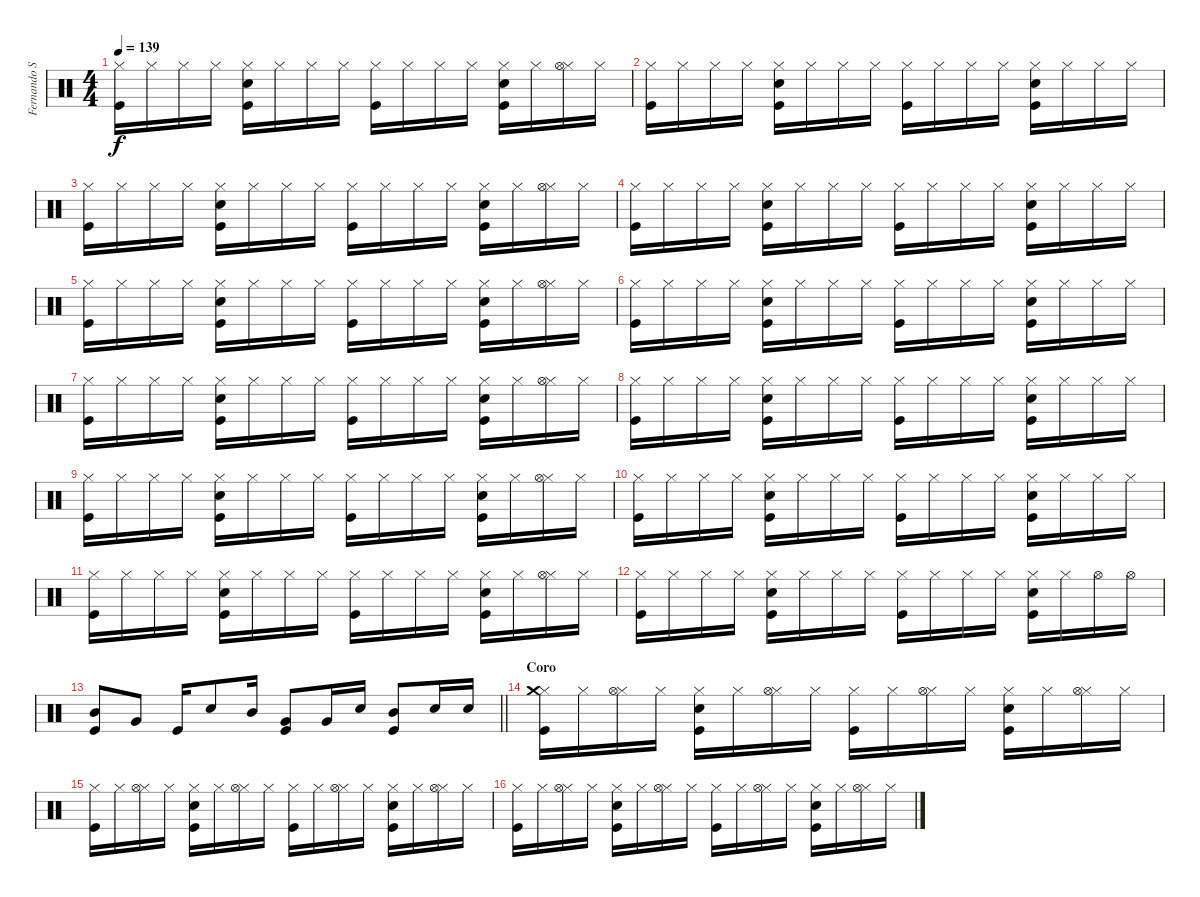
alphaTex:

\track ("Fernando Samalea (Bateria)" "Fernando S") {instrument percussion}
\staff {score}
\articulation defaults
\ts (4 4)
\tempo 139
\clef neutral
\ks c
("Kick (hit)" "Hi-Hat (closed)").16{dy f} "Hi-Hat (closed)".16 "Hi-Hat (closed)".16 "Hi-Hat (closed)".16 ("Kick (hit)" "Snare (hit) 2" "Hi-Hat (closed)").16 "Hi-Hat (closed)".16 "Hi-Hat (closed)".16 "Hi-Hat (closed)".16 ("Kick (hit)" "Hi-Hat (closed)").16 "Hi-Hat (closed)".16 "Hi-Hat (closed)".16 "Hi-Hat (closed)".16 ("Kick (hit)" "Snare (hit) 2" "Hi-Hat (closed)").16 "Hi-Hat (closed)".16 ("Hi-Hat (closed)" "Hi-Hat (open)").16 "Hi-Hat (closed)".16 |
("Kick (hit)" "Hi-Hat (closed)").16 "Hi-Hat (closed)".16 "Hi-Hat (closed)".16 "Hi-Hat (closed)".16 ("Kick (hit)" "Snare (hit) 2" "Hi-Hat (closed)").16 "Hi-Hat (closed)".16 "Hi-Hat (closed)".16 "Hi-Hat (closed)".16 ("Kick (hit)" "Hi-Hat (closed)").16 "Hi-Hat (closed)".16 "Hi-Hat (closed)".16 "Hi-Hat (closed)".16 ("Kick (hit)" "Snare (hit) 2" "Hi-Hat (closed)").16 "Hi-Hat (closed)".16 "Hi-Hat (closed)".16 "Hi-Hat (closed)".16 |
("Kick (hit)" "Hi-Hat (closed)").16 "Hi-Hat (closed)".16 "Hi-Hat (closed)".16 "Hi-Hat (closed)".16 ("Kick (hit)" "Snare (hit) 2" "Hi-Hat (closed)").16 "Hi-Hat (closed)".16 "Hi-Hat (closed)".16 "Hi-Hat (closed)".16 ("Kick (hit)" "Hi-Hat (closed)").16 "Hi-Hat (closed)".16 "Hi-Hat (closed)".16 "Hi-Hat (closed)".16 ("Kick (hit)" "Snare (hit) 2" "Hi-Hat (closed)").16 "Hi-Hat (closed)".16 ("Hi-Hat (closed)" "Hi-Hat (open)").16 "Hi-Hat (closed)".16 |
("Kick (hit)" "Hi-Hat (closed)").16 "Hi-Hat (closed)".16 "Hi-Hat (closed)".16 "Hi-Hat (closed)".16 ("Kick (hit)" "Snare (hit) 2" "Hi-Hat (closed)").16 "Hi-Hat (closed)".16 "Hi-Hat (closed)".16 "Hi-Hat (closed)".16 ("Kick (hit)" "Hi-Hat (closed)").16 "Hi-Hat (closed)".16 "Hi-Hat (closed)".16 "Hi-Hat (closed)".16 ("Kick (hit)" "Snare (hit) 2" "Hi-Hat (closed)").16 "Hi-Hat (closed)".16 "Hi-Hat (closed)".16 "Hi-Hat (closed)".16 |
("Kick (hit)" "Hi-Hat (closed)").16 "Hi-Hat (closed)".16 "Hi-Hat (closed)".16 "Hi-Hat (closed)".16 ("Kick (hit)" "Snare (hit) 2" "Hi-Hat (closed)").16 "Hi-Hat (closed)".16 "Hi-Hat (closed)".16 "Hi-Hat (closed)".16 ("Kick (hit)" "Hi-Hat (closed)").16 "Hi-Hat (closed)".16 "Hi-Hat (closed)".16 "Hi-Hat (closed)".16 ("Kick (hit)" "Snare (hit) 2" "Hi-Hat (closed)").16 "Hi-Hat (closed)".16 ("Hi-Hat (closed)" "Hi-Hat (open)").16 "Hi-Hat (closed)".16 |
("Kick (hit)" "Hi-Hat (closed)").16 "Hi-Hat (closed)".16 "Hi-Hat (closed)".16 "Hi-Hat (closed)".16 ("Kick (hit)" "Snare (hit) 2" "Hi-Hat (closed)").16 "Hi-Hat (closed)".16 "Hi-Hat (closed)".16 "Hi-Hat (closed)".16 ("Kick (hit)" "Hi-Hat (closed)").16 "Hi-Hat (closed)".16 "Hi-Hat (closed)".16 "Hi-Hat (closed)".16 ("Kick (hit)" "Snare (hit) 2" "Hi-Hat (closed)").16 "Hi-Hat (closed)".16 "Hi-Hat (closed)".16 "Hi-Hat (closed)".16 |
("Kick (hit)" "Hi-Hat (closed)").16 "Hi-Hat (closed)".16 "Hi-Hat (closed)".16 "Hi-Hat (closed)".16 ("Kick (hit)" "Snare (hit) 2" "Hi-Hat (closed)").16 "Hi-Hat (closed)".16 "Hi-Hat (closed)".16 "Hi-Hat (closed)".16 ("Kick (hit)" "Hi-Hat (closed)").16 "Hi-Hat (closed)".16 "Hi-Hat (closed)".16 "Hi-Hat (closed)".16 ("Kick (hit)" "Snare (hit) 2" "Hi-Hat (closed)").16 "Hi-Hat (closed)".16 ("Hi-Hat (closed)" "Hi-Hat (open)").16 "Hi-Hat (closed)".16 |
("Kick (hit)" "Hi-Hat (closed)").16 "Hi-Hat (closed)".16 "Hi-Hat (closed)".16 "Hi-Hat (closed)".16 ("Kick (hit)" "Snare (hit) 2" "Hi-Hat (closed)").16 "Hi-Hat (closed)".16 "Hi-Hat (closed)".16 "Hi-Hat (closed)".16 ("Kick (hit)" "Hi-Hat (closed)").16 "Hi-Hat (closed)".16 "Hi-Hat (closed)".16 "Hi-Hat (closed)".16 ("Kick (hit)" "Snare (hit) 2" "Hi-Hat (closed)").16 "Hi-Hat (closed)".16 "Hi-Hat (closed)".16 "Hi-Hat (closed)".16 |
("Kick (hit)" "Hi-Hat (closed)").16 "Hi-Hat (closed)".16 "Hi-Hat (closed)".16 "Hi-Hat (closed)".16 ("Kick (hit)" "Snare (hit) 2" "Hi-Hat (closed)").16 "Hi-Hat (closed)".16 "Hi-Hat (closed)".16 "Hi-Hat (closed)".16 ("Kick (hit)" "Hi-Hat (closed)").16 "Hi-Hat (closed)".16 "Hi-Hat (closed)".16 "Hi-Hat (closed)".16 ("Kick (hit)" "Snare (hit) 2" "Hi-Hat (closed)").16 "Hi-Hat (closed)".16 ("Hi-Hat (closed)" "Hi-Hat (open)").16 "Hi-Hat (closed)".16 |
("Kick (hit)" "Hi-Hat (closed)").16 "Hi-Hat (closed)".16 "Hi-Hat (closed)".16 "Hi-Hat (closed)".16 ("Kick (hit)" "Snare (hit) 2" "Hi-Hat (closed)").16 "Hi-Hat (closed)".16 "Hi-Hat (closed)".16 "Hi-Hat (closed)".16 ("Kick (hit)" "Hi-Hat (closed)").16 "Hi-Hat (closed)".16 "Hi-Hat (closed)".16 "Hi-Hat (closed)".16 ("Kick (hit)" "Snare (hit) 2" "Hi-Hat (closed)").16 "Hi-Hat (closed)".16 "Hi-Hat (closed)".16 "Hi-Hat (closed)".16 |
("Kick (hit)" "Hi-Hat (closed)").16 "Hi-Hat (closed)".16 "Hi-Hat (closed)".16 "Hi-Hat (closed)".16 ("Kick (hit)" "Snare (hit) 2" "Hi-Hat (closed)").16 "Hi-Hat (closed)".16 "Hi-Hat (closed)".16 "Hi-Hat (closed)".16 ("Kick (hit)" "Hi-Hat (closed)").16 "Hi-Hat (closed)".16 "Hi-Hat (closed)".16 "Hi-Hat (closed)".16 ("Kick (hit)" "Snare (hit) 2" "Hi-Hat (closed)").16 "Hi-Hat (closed)".16 ("Hi-Hat (closed)" "Hi-Hat (open)").16 "Hi-Hat (closed)".16 |
("Kick (hit)" "Hi-Hat (closed)").16 "Hi-Hat (closed)".16 "Hi-Hat (closed)".16 "Hi-Hat (closed)".16 ("Kick (hit)" "Snare (hit) 2" "Hi-Hat (closed)").16 "Hi-Hat (closed)".16 "Hi-Hat (closed)".16 "Hi-Hat (closed)".16 ("Kick (hit)" "Hi-Hat (closed)").16 "Hi-Hat (closed)".16 "Hi-Hat (closed)".16 "Hi-Hat (closed)".16 ("Kick (hit)" "Snare (hit) 2" "Hi-Hat (closed)").16 "Hi-Hat (closed)".16 "Hi-Hat (open)".16 "Hi-Hat (open)".16 |
\barLineRight lightlight
("Kick (hit)" "Mid Tom (hit)").8 "Very Low Tom (hit)".8 "Kick (hit)".16 "Snare (hit) 2".8 "Mid Tom (hit)".16 ("Kick (hit)" "Very Low Tom (hit)").8 "Very Low Tom (hit)".16 "Snare (hit) 2".16 ("Kick (hit)" "Mid Tom (hit)").8 "Snare (hit) 2".16 "Snare (hit) 2".16 |
\section ("" "Coro")
("Kick (hit)" "Hi-Hat (closed)" "Crash medium (hit)").16 "Hi-Hat (closed)".16 ("Hi-Hat (closed)" "Hi-Hat (open)").16 "Hi-Hat (closed)".16 ("Kick (hit)" "Snare (hit) 2" "Hi-Hat (closed)").16 "Hi-Hat (closed)".16 ("Hi-Hat (closed)" "Hi-Hat (open)").16 "Hi-Hat (closed)".16 ("Kick (hit)" "Hi-Hat (closed)").16 "Hi-Hat (closed)".16 ("Hi-Hat (closed)" "Hi-Hat (open)").16 "Hi-Hat (closed)".16 ("Kick (hit)" "Snare (hit) 2" "Hi-Hat (closed)").16 "Hi-Hat (closed)".16 ("Hi-Hat (closed)" "Hi-Hat (open)").16 "Hi-Hat (closed)".16 |
("Kick (hit)" "Hi-Hat (closed)").16 "Hi-Hat (closed)".16 ("Hi-Hat (closed)" "Hi-Hat (open)").16 "Hi-Hat (closed)".16 ("Kick (hit)" "Snare (hit) 2" "Hi-Hat (closed)").16 "Hi-Hat (closed)".16 ("Hi-Hat (closed)" "Hi-Hat (open)").16 "Hi-Hat (closed)".16 ("Kick (hit)" "Hi-Hat (closed)").16 "Hi-Hat (closed)".16 ("Hi-Hat (closed)" "Hi-Hat (open)").16 "Hi-Hat (closed)".16 ("Kick (hit)" "Snare (hit) 2" "Hi-Hat (closed)").16 "Hi-Hat (closed)".16 ("Hi-Hat (closed)" "Hi-Hat (open)").16 "Hi-Hat (closed)".16 |
("Kick (hit)" "Hi-Hat (closed)").16 "Hi-Hat (closed)".16 ("Hi-Hat (closed)" "Hi-Hat (open)").16 "Hi-Hat (closed)".16 ("Kick (hit)" "Snare (hit) 2" "Hi-Hat (closed)").16 "Hi-Hat (closed)".16 ("Hi-Hat (closed)" "Hi-Hat (open)").16 "Hi-Hat (closed)".16 ("Kick (hit)" "Hi-Hat (closed)").16 "Hi-Hat (closed)".16 ("Hi-Hat (closed)" "Hi-Hat (open)").16 "Hi-Hat (closed)".16 ("Kick (hit)" "Snare (hit) 2" "Hi-Hat (closed)").16 "Hi-Hat (closed)".16 ("Hi-Hat (closed)" "Hi-Hat (open)").16 "Hi-Hat (closed)".16
